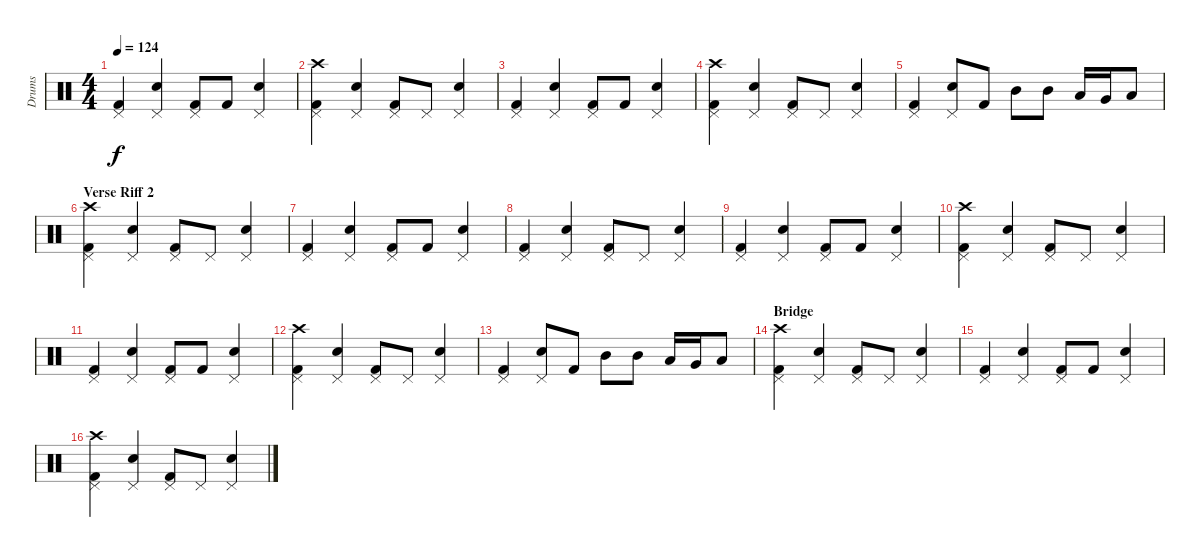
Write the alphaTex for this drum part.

\track ("Drums" "Drums") {instrument percussion}
\staff {score}
\articulation defaults
\ts (4 4)
\tempo 124
\clef neutral
\ks c
("Kick (hit) 2" "Pedal Hi-Hat (hit)").4{dy f} ("Snare (hit) 2" "Pedal Hi-Hat (hit)").4 ("Kick (hit) 2" "Pedal Hi-Hat (hit)").8 "Kick (hit) 2".8 ("Snare (hit) 2" "Pedal Hi-Hat (hit)").4 |
("Kick (hit) 2" "Pedal Hi-Hat (hit)" "Crash high (hit)").4 ("Snare (hit) 2" "Pedal Hi-Hat (hit)").4 ("Kick (hit) 2" "Pedal Hi-Hat (hit)").8 "Pedal Hi-Hat (hit)".8 ("Snare (hit) 2" "Pedal Hi-Hat (hit)").4 |
("Kick (hit) 2" "Pedal Hi-Hat (hit)").4 ("Snare (hit) 2" "Pedal Hi-Hat (hit)").4 ("Kick (hit) 2" "Pedal Hi-Hat (hit)").8 "Kick (hit) 2".8 ("Snare (hit) 2" "Pedal Hi-Hat (hit)").4 |
("Kick (hit) 2" "Pedal Hi-Hat (hit)" "Crash high (hit)").4 ("Snare (hit) 2" "Pedal Hi-Hat (hit)").4 ("Kick (hit) 2" "Pedal Hi-Hat (hit)").8 "Pedal Hi-Hat (hit)".8 ("Snare (hit) 2" "Pedal Hi-Hat (hit)").4 |
("Kick (hit) 2" "Pedal Hi-Hat (hit)").4 ("Snare (hit) 2" "Pedal Hi-Hat (hit)").8 "Kick (hit) 2".8 "Mid Tom (hit)".8 "Mid Tom (hit)".8 "Low Tom (hit)".16 "Very Low Tom (hit)".16 "Low Floor Tom (hit)".8 |
\section ("" "Verse Riff 2")
("Kick (hit) 2" "Pedal Hi-Hat (hit)" "Crash high (hit)").4 ("Snare (hit) 2" "Pedal Hi-Hat (hit)").4 ("Kick (hit) 2" "Pedal Hi-Hat (hit)").8 "Pedal Hi-Hat (hit)".8 ("Snare (hit) 2" "Pedal Hi-Hat (hit)").4 |
("Kick (hit) 2" "Pedal Hi-Hat (hit)").4 ("Snare (hit) 2" "Pedal Hi-Hat (hit)").4 ("Kick (hit) 2" "Pedal Hi-Hat (hit)").8 "Kick (hit) 2".8 ("Snare (hit) 2" "Pedal Hi-Hat (hit)").4 |
("Kick (hit) 2" "Pedal Hi-Hat (hit)").4 ("Snare (hit) 2" "Pedal Hi-Hat (hit)").4 ("Kick (hit) 2" "Pedal Hi-Hat (hit)").8 "Pedal Hi-Hat (hit)".8 ("Snare (hit) 2" "Pedal Hi-Hat (hit)").4 |
("Kick (hit) 2" "Pedal Hi-Hat (hit)").4 ("Snare (hit) 2" "Pedal Hi-Hat (hit)").4 ("Kick (hit) 2" "Pedal Hi-Hat (hit)").8 "Kick (hit) 2".8 ("Snare (hit) 2" "Pedal Hi-Hat (hit)").4 |
("Kick (hit) 2" "Pedal Hi-Hat (hit)" "Crash high (hit)").4 ("Snare (hit) 2" "Pedal Hi-Hat (hit)").4 ("Kick (hit) 2" "Pedal Hi-Hat (hit)").8 "Pedal Hi-Hat (hit)".8 ("Snare (hit) 2" "Pedal Hi-Hat (hit)").4 |
("Kick (hit) 2" "Pedal Hi-Hat (hit)").4 ("Snare (hit) 2" "Pedal Hi-Hat (hit)").4 ("Kick (hit) 2" "Pedal Hi-Hat (hit)").8 "Kick (hit) 2".8 ("Snare (hit) 2" "Pedal Hi-Hat (hit)").4 |
("Kick (hit) 2" "Pedal Hi-Hat (hit)" "Crash high (hit)").4 ("Snare (hit) 2" "Pedal Hi-Hat (hit)").4 ("Kick (hit) 2" "Pedal Hi-Hat (hit)").8 "Pedal Hi-Hat (hit)".8 ("Snare (hit) 2" "Pedal Hi-Hat (hit)").4 |
("Kick (hit) 2" "Pedal Hi-Hat (hit)").4 ("Snare (hit) 2" "Pedal Hi-Hat (hit)").8 "Kick (hit) 2".8 "Mid Tom (hit)".8 "Mid Tom (hit)".8 "Low Tom (hit)".16 "Very Low Tom (hit)".16 "Low Floor Tom (hit)".8 |
\section ("" "Bridge")
("Kick (hit) 2" "Pedal Hi-Hat (hit)" "Crash high (hit)").4 ("Snare (hit) 2" "Pedal Hi-Hat (hit)").4 ("Kick (hit) 2" "Pedal Hi-Hat (hit)").8 "Pedal Hi-Hat (hit)".8 ("Snare (hit) 2" "Pedal Hi-Hat (hit)").4 |
("Kick (hit) 2" "Pedal Hi-Hat (hit)").4 ("Snare (hit) 2" "Pedal Hi-Hat (hit)").4 ("Kick (hit) 2" "Pedal Hi-Hat (hit)").8 "Kick (hit) 2".8 ("Snare (hit) 2" "Pedal Hi-Hat (hit)").4 |
("Kick (hit) 2" "Pedal Hi-Hat (hit)" "Crash high (hit)").4 ("Snare (hit) 2" "Pedal Hi-Hat (hit)").4 ("Kick (hit) 2" "Pedal Hi-Hat (hit)").8 "Pedal Hi-Hat (hit)".8 ("Snare (hit) 2" "Pedal Hi-Hat (hit)").4
